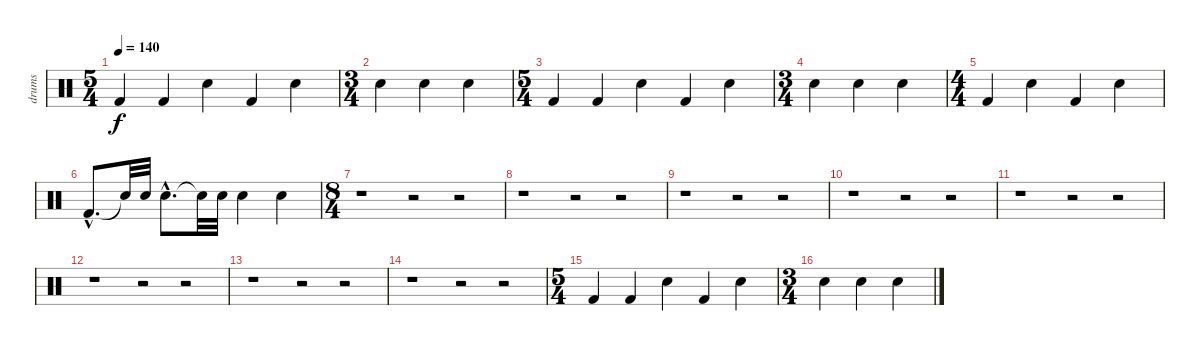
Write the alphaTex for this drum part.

\track ("drums" "drums") {instrument percussion}
\staff {score}
\articulation defaults
\ts (5 4)
\tempo 140
\clef neutral
\ks c "Kick (hit) 2".4{dy f} "Kick (hit) 2".4 "Snare (hit) 2".4 "Kick (hit) 2".4 "Snare (hit) 2".4
|
\ts (3 4)
"Electric Snare (hit)".4 "Snare (hit) 2".4 "Electric Snare (hit)".4 |
\ts (5 4)
"Kick (hit) 2".4 "Kick (hit) 2".4 "Snare (hit) 2".4 "Kick (hit) 2".4 "Snare (hit) 2".4 |
\ts (3 4)
"Electric Snare (hit)".4 "Snare (hit) 2".4 "Electric Snare (hit)".4 |
\ts (4 4)
"Kick (hit) 2".4 "Snare (hit) 2".4 "Kick (hit) 2".4 "Snare (hit) 2".4 |
"Kick (hit) 2"{hac}.8{d} "Snare (hit)"{t}.32 "Snare (hit) 2".32 "Snare (hit) 2"{hac}.8{d} "Snare (hit)"{t}.32 "Snare (hit) 2".32 "Snare (hit) 2".4 "Snare (hit) 2".4 |
\ts (8 4)
r.1 r.2 r.2 |
r.1 r.2 r.2 |
r.1 r.2 r.2 |
r.1 r.2 r.2 |
r.1 r.2 r.2 |
r.1 r.2 r.2 |
r.1 r.2 r.2 |
r.1 r.2 r.2 |
\ts (5 4)
"Kick (hit) 2".4 "Kick (hit) 2".4 "Snare (hit) 2".4 "Kick (hit) 2".4 "Snare (hit) 2".4 |
\ts (3 4)
"Electric Snare (hit)".4 "Snare (hit) 2".4 "Electric Snare (hit)".4
